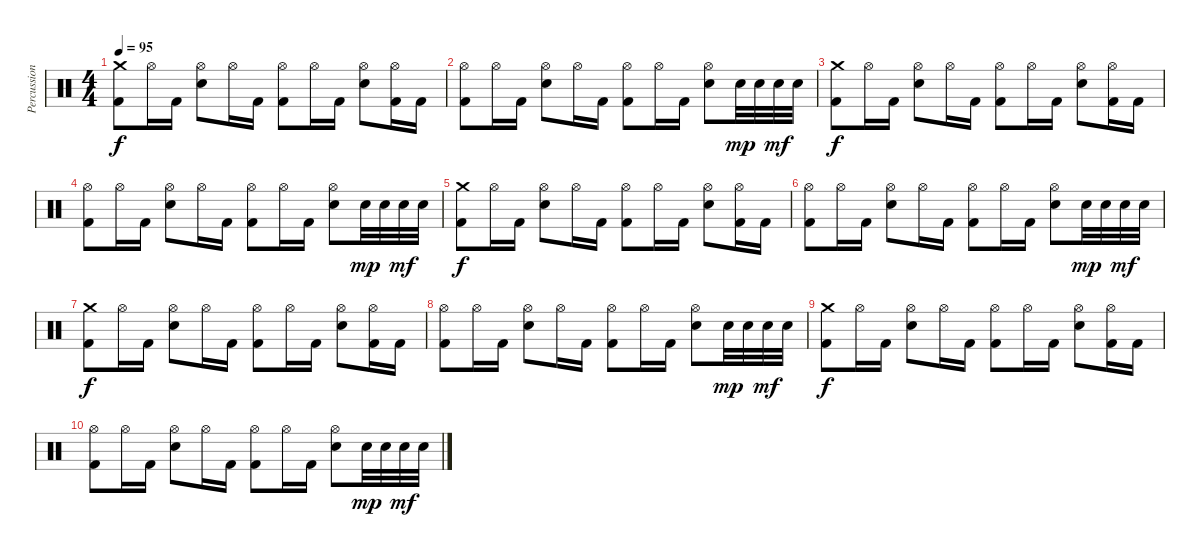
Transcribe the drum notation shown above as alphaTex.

\track ("Percussions" "Percussion") {instrument percussion}
\staff {score}
\articulation defaults
\ts (4 4)
\tempo 95
\clef neutral
\ks c
("Crash medium (hit)" "Kick (hit) 2").8{dy f} "Hi-Hat (open)".16 "Kick (hit) 2".16 ("Hi-Hat (open)" "Electric Snare (hit)").8 "Hi-Hat (open)".16 "Kick (hit) 2".16 ("Hi-Hat (open)" "Kick (hit) 2").8 "Hi-Hat (open)".16 "Kick (hit) 2".16 ("Hi-Hat (open)" "Electric Snare (hit)").8 ("Hi-Hat (open)" "Kick (hit) 2").16 "Kick (hit) 2".16 |
("Hi-Hat (open)" "Kick (hit) 2").8 "Hi-Hat (open)".16 "Kick (hit) 2".16 ("Hi-Hat (open)" "Electric Snare (hit)").8 "Hi-Hat (open)".16 "Kick (hit) 2".16 ("Hi-Hat (open)" "Kick (hit) 2").8 "Hi-Hat (open)".16 "Kick (hit) 2".16 ("Hi-Hat (open)" "Electric Snare (hit)").8 "Electric Snare (hit)".32{dy mp} "Electric Snare (hit)".32 "Electric Snare (hit)".32{dy mf} "Electric Snare (hit)".32 |
("Crash medium (hit)" "Kick (hit) 2").8{dy f volume 8} "Hi-Hat (open)".16 "Kick (hit) 2".16 ("Hi-Hat (open)" "Electric Snare (hit)").8 "Hi-Hat (open)".16 "Kick (hit) 2".16 ("Hi-Hat (open)" "Kick (hit) 2").8 "Hi-Hat (open)".16 "Kick (hit) 2".16 ("Hi-Hat (open)" "Electric Snare (hit)").8 ("Hi-Hat (open)" "Kick (hit) 2").16 "Kick (hit) 2".16 |
("Hi-Hat (open)" "Kick (hit) 2").8 "Hi-Hat (open)".16 "Kick (hit) 2".16 ("Hi-Hat (open)" "Electric Snare (hit)").8 "Hi-Hat (open)".16 "Kick (hit) 2".16 ("Hi-Hat (open)" "Kick (hit) 2").8 "Hi-Hat (open)".16 "Kick (hit) 2".16 ("Hi-Hat (open)" "Electric Snare (hit)").8 "Electric Snare (hit)".32{dy mp} "Electric Snare (hit)".32 "Electric Snare (hit)".32{dy mf} "Electric Snare (hit)".32 |
("Crash medium (hit)" "Kick (hit) 2").8{dy f volume 6} "Hi-Hat (open)".16 "Kick (hit) 2".16 ("Hi-Hat (open)" "Electric Snare (hit)").8 "Hi-Hat (open)".16 "Kick (hit) 2".16 ("Hi-Hat (open)" "Kick (hit) 2").8 "Hi-Hat (open)".16 "Kick (hit) 2".16 ("Hi-Hat (open)" "Electric Snare (hit)").8 ("Hi-Hat (open)" "Kick (hit) 2").16 "Kick (hit) 2".16 |
("Hi-Hat (open)" "Kick (hit) 2").8 "Hi-Hat (open)".16 "Kick (hit) 2".16 ("Hi-Hat (open)" "Electric Snare (hit)").8 "Hi-Hat (open)".16 "Kick (hit) 2".16 ("Hi-Hat (open)" "Kick (hit) 2").8 "Hi-Hat (open)".16 "Kick (hit) 2".16 ("Hi-Hat (open)" "Electric Snare (hit)").8 "Electric Snare (hit)".32{dy mp} "Electric Snare (hit)".32 "Electric Snare (hit)".32{dy mf} "Electric Snare (hit)".32 |
("Crash medium (hit)" "Kick (hit) 2").8{dy f volume 4} "Hi-Hat (open)".16 "Kick (hit) 2".16 ("Hi-Hat (open)" "Electric Snare (hit)").8 "Hi-Hat (open)".16 "Kick (hit) 2".16 ("Hi-Hat (open)" "Kick (hit) 2").8 "Hi-Hat (open)".16 "Kick (hit) 2".16 ("Hi-Hat (open)" "Electric Snare (hit)").8 ("Hi-Hat (open)" "Kick (hit) 2").16 "Kick (hit) 2".16 |
("Hi-Hat (open)" "Kick (hit) 2").8 "Hi-Hat (open)".16 "Kick (hit) 2".16 ("Hi-Hat (open)" "Electric Snare (hit)").8 "Hi-Hat (open)".16 "Kick (hit) 2".16 ("Hi-Hat (open)" "Kick (hit) 2").8 "Hi-Hat (open)".16 "Kick (hit) 2".16 ("Hi-Hat (open)" "Electric Snare (hit)").8 "Electric Snare (hit)".32{dy mp} "Electric Snare (hit)".32 "Electric Snare (hit)".32{dy mf} "Electric Snare (hit)".32 |
("Crash medium (hit)" "Kick (hit) 2").8{dy f volume 0} "Hi-Hat (open)".16 "Kick (hit) 2".16 ("Hi-Hat (open)" "Electric Snare (hit)").8 "Hi-Hat (open)".16 "Kick (hit) 2".16 ("Hi-Hat (open)" "Kick (hit) 2").8 "Hi-Hat (open)".16 "Kick (hit) 2".16 ("Hi-Hat (open)" "Electric Snare (hit)").8 ("Hi-Hat (open)" "Kick (hit) 2").16 "Kick (hit) 2".16 |
("Hi-Hat (open)" "Kick (hit) 2").8 "Hi-Hat (open)".16 "Kick (hit) 2".16 ("Hi-Hat (open)" "Electric Snare (hit)").8 "Hi-Hat (open)".16 "Kick (hit) 2".16 ("Hi-Hat (open)" "Kick (hit) 2").8 "Hi-Hat (open)".16 "Kick (hit) 2".16 ("Hi-Hat (open)" "Electric Snare (hit)").8 "Electric Snare (hit)".32{dy mp} "Electric Snare (hit)".32 "Electric Snare (hit)".32{dy mf} "Electric Snare (hit)".32
